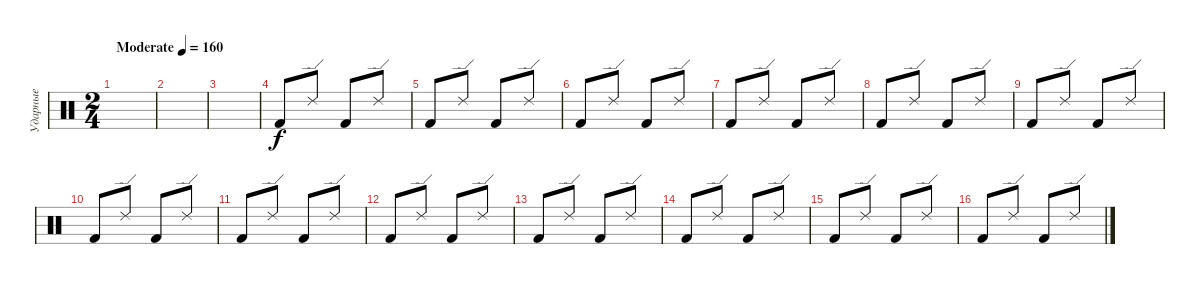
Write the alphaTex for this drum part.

\track ("Ударные" "Ударные") {instrument percussion}
\staff {score}
\articulation defaults
\ts (2 4)
\tempo (160 "Moderate")
\clef neutral
\ks c
|
|
|
"Kick (hit) 2".8 "Ride (edge) 2".8 "Kick (hit) 2".8 "Ride (edge) 2".8 |
"Kick (hit) 2".8 "Ride (edge) 2".8 "Kick (hit) 2".8 "Ride (edge) 2".8 |
"Kick (hit) 2".8 "Ride (edge) 2".8 "Kick (hit) 2".8 "Ride (edge) 2".8 |
"Kick (hit) 2".8 "Ride (edge) 2".8 "Kick (hit) 2".8 "Ride (edge) 2".8 |
"Kick (hit) 2".8 "Ride (edge) 2".8 "Kick (hit) 2".8 "Ride (edge) 2".8 |
"Kick (hit) 2".8 "Ride (edge) 2".8 "Kick (hit) 2".8 "Ride (edge) 2".8 |
"Kick (hit) 2".8 "Ride (edge) 2".8 "Kick (hit) 2".8 "Ride (edge) 2".8 |
"Kick (hit) 2".8 "Ride (edge) 2".8 "Kick (hit) 2".8 "Ride (edge) 2".8 |
"Kick (hit) 2".8 "Ride (edge) 2".8 "Kick (hit) 2".8 "Ride (edge) 2".8 |
"Kick (hit) 2".8 "Ride (edge) 2".8 "Kick (hit) 2".8 "Ride (edge) 2".8 |
"Kick (hit) 2".8 "Ride (edge) 2".8 "Kick (hit) 2".8 "Ride (edge) 2".8 |
"Kick (hit) 2".8 "Ride (edge) 2".8 "Kick (hit) 2".8 "Ride (edge) 2".8 |
"Kick (hit) 2".8 "Ride (edge) 2".8 "Kick (hit) 2".8 "Ride (edge) 2".8
